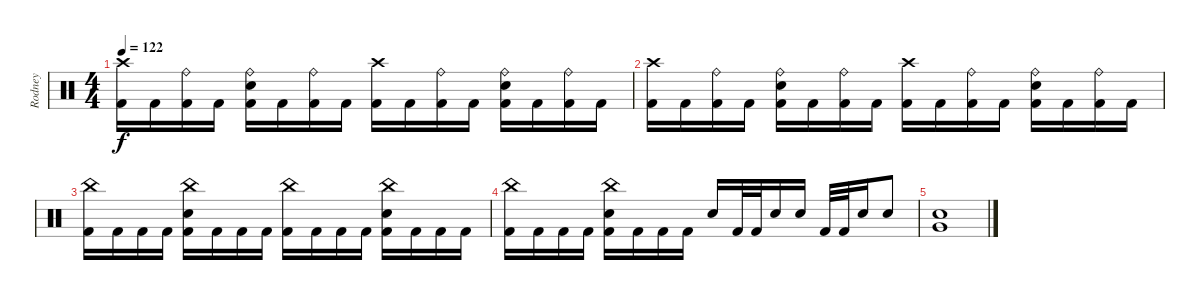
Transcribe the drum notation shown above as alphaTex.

\track ("Rodney" "Rodney") {instrument percussion}
\staff {score}
\articulation defaults
\ts (4 4)
\tempo 122
\clef neutral
\ks c
("Crash high (hit)" "Kick (hit) 2").16{dy f} "Kick (hit) 2".16 ("Ride (bell)" "Kick (hit) 2").16 "Kick (hit) 2".16 ("Ride (bell)" "Snare (hit) 2" "Kick (hit) 2").16 "Kick (hit) 2".16 ("Ride (bell)" "Kick (hit) 2").16 "Kick (hit) 2".16 ("Crash high (hit)" "Kick (hit) 2").16 "Kick (hit) 2".16 ("Ride (bell)" "Kick (hit) 2").16 "Kick (hit) 2".16 ("Ride (bell)" "Snare (hit) 2" "Kick (hit) 2").16 "Kick (hit) 2".16 ("Ride (bell)" "Kick (hit) 2").16 "Kick (hit) 2".16 |
("Crash high (hit)" "Kick (hit) 2").16 "Kick (hit) 2".16 ("Ride (bell)" "Kick (hit) 2").16 "Kick (hit) 2".16 ("Ride (bell)" "Snare (hit) 2" "Kick (hit) 2").16 "Kick (hit) 2".16 ("Ride (bell)" "Kick (hit) 2").16 "Kick (hit) 2".16 ("Crash high (hit)" "Kick (hit) 2").16 "Kick (hit) 2".16 ("Ride (bell)" "Kick (hit) 2").16 "Kick (hit) 2".16 ("Ride (bell)" "Snare (hit) 2" "Kick (hit) 2").16 "Kick (hit) 2".16 ("Ride (bell)" "Kick (hit) 2").16 "Kick (hit) 2".16 |
("China (hit)" "Kick (hit) 2").16 "Kick (hit) 2".16 "Kick (hit) 2".16 "Kick (hit) 2".16 ("China (hit)" "Snare (hit) 2" "Kick (hit) 2").16 "Kick (hit) 2".16 "Kick (hit) 2".16 "Kick (hit) 2".16 ("China (hit)" "Kick (hit) 2").16 "Kick (hit) 2".16 "Kick (hit) 2".16 "Kick (hit) 2".16 ("China (hit)" "Snare (hit) 2" "Kick (hit) 2").16 "Kick (hit) 2".16 "Kick (hit) 2".16 "Kick (hit) 2".16 |
("China (hit)" "Kick (hit) 2").16 "Kick (hit) 2".16 "Kick (hit) 2".16 "Kick (hit) 2".16 ("China (hit)" "Snare (hit) 2" "Kick (hit) 2").16 "Kick (hit) 2".16 "Kick (hit) 2".16 "Kick (hit) 2".16 "Snare (hit) 2".16 "Kick (hit) 2".32 "Kick (hit) 2".32 "Snare (hit) 2".16 "Snare (hit) 2".16 "Kick (hit) 2".32 "Kick (hit) 2".32 "Snare (hit) 2".16 "Snare (hit) 2".8 |
("Snare (hit) 2" "Very Low Tom (hit)").1
